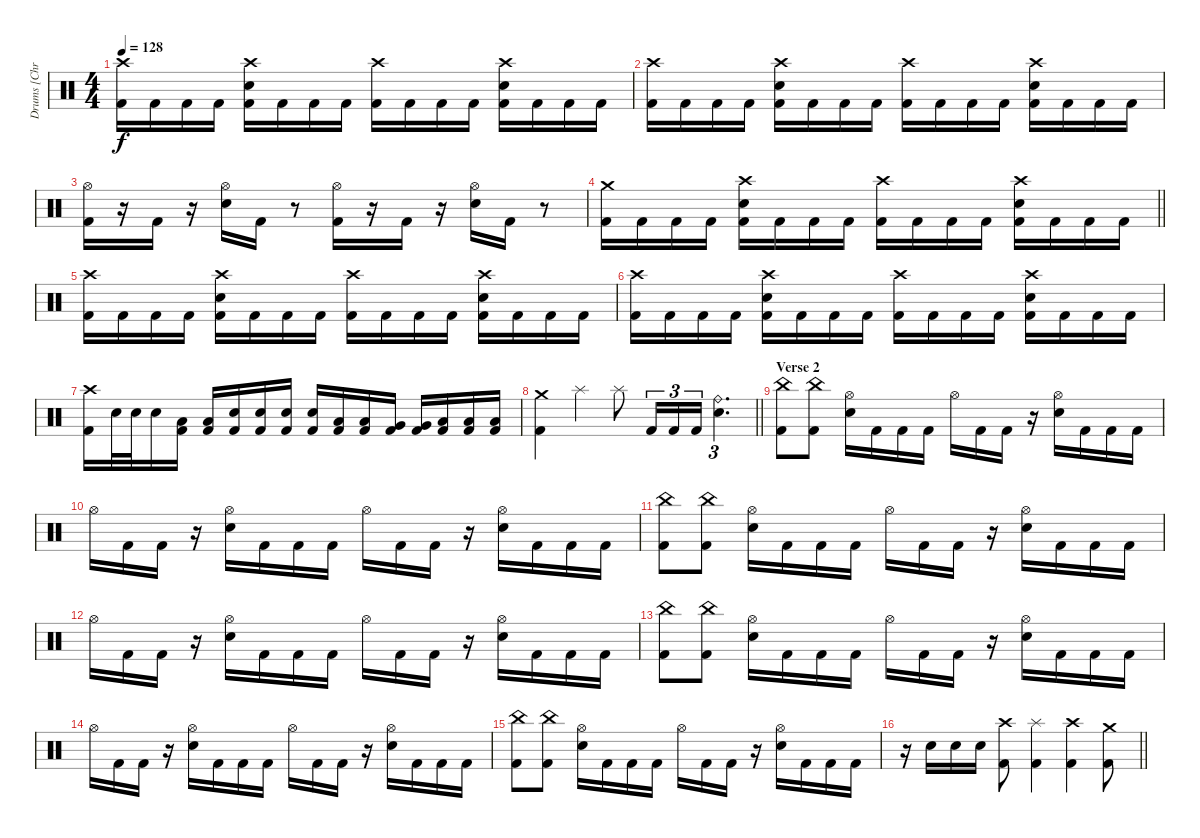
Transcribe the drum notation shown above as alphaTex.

\track ("Drums [Chris Adler]" "Drums [Chr") {instrument percussion}
\staff {score}
\articulation defaults
\ts (4 4)
\tempo 128
\clef neutral
\ks c
("Crash high (hit)" "Kick (hit) 2").16{dy f} "Kick (hit) 2".16 "Kick (hit) 2".16 "Kick (hit) 2".16 ("Crash high (hit)" "Snare (hit) 2" "Kick (hit) 2").16 "Kick (hit) 2".16 "Kick (hit) 2".16 "Kick (hit) 2".16 ("Crash high (hit)" "Kick (hit) 2").16 "Kick (hit) 2".16 "Kick (hit) 2".16 "Kick (hit) 2".16 ("Crash high (hit)" "Snare (hit) 2" "Kick (hit) 2").16 "Kick (hit) 2".16 "Kick (hit) 2".16 "Kick (hit) 2".16 |
("Crash high (hit)" "Kick (hit) 2").16 "Kick (hit) 2".16 "Kick (hit) 2".16 "Kick (hit) 2".16 ("Crash high (hit)" "Snare (hit) 2" "Kick (hit) 2").16 "Kick (hit) 2".16 "Kick (hit) 2".16 "Kick (hit) 2".16 ("Crash high (hit)" "Kick (hit) 2").16 "Kick (hit) 2".16 "Kick (hit) 2".16 "Kick (hit) 2".16 ("Crash high (hit)" "Snare (hit) 2" "Kick (hit) 2").16 "Kick (hit) 2".16 "Kick (hit) 2".16 "Kick (hit) 2".16 |
("Hi-Hat (open)" "Kick (hit) 2").16 r.16 "Kick (hit) 2".16 r.16 ("Hi-Hat (open)" "Snare (hit) 2").16 "Kick (hit) 2".16 r.8 ("Hi-Hat (open)" "Kick (hit) 2").16 r.16 "Kick (hit) 2".16 r.16 ("Hi-Hat (open)" "Snare (hit) 2").16 "Kick (hit) 2".16 r.8 |
\barLineRight lightlight
("Crash medium (hit)" "Kick (hit) 2").16 "Kick (hit) 2".16 "Kick (hit) 2".16 "Kick (hit) 2".16 ("Crash high (hit)" "Snare (hit) 2" "Kick (hit) 2").16 "Kick (hit) 2".16 "Kick (hit) 2".16 "Kick (hit) 2".16 ("Crash high (hit)" "Kick (hit) 2").16 "Kick (hit) 2".16 "Kick (hit) 2".16 "Kick (hit) 2".16 ("Crash high (hit)" "Snare (hit) 2" "Kick (hit) 2").16 "Kick (hit) 2".16 "Kick (hit) 2".16 "Kick (hit) 2".16 |
("Crash high (hit)" "Kick (hit) 2").16 "Kick (hit) 2".16 "Kick (hit) 2".16 "Kick (hit) 2".16 ("Crash high (hit)" "Snare (hit) 2" "Kick (hit) 2").16 "Kick (hit) 2".16 "Kick (hit) 2".16 "Kick (hit) 2".16 ("Crash high (hit)" "Kick (hit) 2").16 "Kick (hit) 2".16 "Kick (hit) 2".16 "Kick (hit) 2".16 ("Crash high (hit)" "Snare (hit) 2" "Kick (hit) 2").16 "Kick (hit) 2".16 "Kick (hit) 2".16 "Kick (hit) 2".16 |
("Crash high (hit)" "Kick (hit) 2").16 "Kick (hit) 2".16 "Kick (hit) 2".16 "Kick (hit) 2".16 ("Crash high (hit)" "Snare (hit) 2" "Kick (hit) 2").16 "Kick (hit) 2".16 "Kick (hit) 2".16 "Kick (hit) 2".16 ("Crash high (hit)" "Kick (hit) 2").16 "Kick (hit) 2".16 "Kick (hit) 2".16 "Kick (hit) 2".16 ("Crash high (hit)" "Snare (hit) 2" "Kick (hit) 2").16 "Kick (hit) 2".16 "Kick (hit) 2".16 "Kick (hit) 2".16 |
("Crash high (hit)" "Kick (hit) 2").16 "Snare (hit) 2".32 "Snare (hit) 2".32 "Snare (hit) 2".16 ("Low Tom (hit)" "Kick (hit) 2").16 ("Low Tom (hit)" "Kick (hit) 2").16 ("Snare (hit) 2" "Kick (hit) 2").16 ("Snare (hit) 2" "Kick (hit) 2").16 ("Snare (hit) 2" "Kick (hit) 2").16 ("Snare (hit) 2" "Kick (hit) 2").16 ("Low Tom (hit)" "Kick (hit) 2").16 ("Low Tom (hit)" "Kick (hit) 2").16 ("Very Low Tom (hit)" "Kick (hit) 2").16 ("Very Low Tom (hit)" "Kick (hit) 2").16 ("Low Floor Tom (hit)" "Kick (hit) 2").16 ("Low Floor Tom (hit)" "Kick (hit) 2").16 ("Low Floor Tom (hit)" "Kick (hit) 2").16 |
\barLineRight lightlight
("Crash medium (hit)" "Kick (hit) 2").4 "Splash (hit)".4 "Splash (hit)".8 "Kick (hit) 2".16{tu (3 2)} "Kick (hit) 2".16{tu (3 2)} "Kick (hit) 2".16{tu (3 2)} ("Ride (bell)" "Snare (hit) 2").4{d tu (3 2)} |
\section ("" "Verse 2")
("China (hit)" "Kick (hit) 2").8 ("China (hit)" "Kick (hit) 2").8 ("Hi-Hat (open)" "Snare (hit) 2").16 "Kick (hit) 2".16 "Kick (hit) 2".16 "Kick (hit) 2".16 "Hi-Hat (open)".16 "Kick (hit) 2".16 "Kick (hit) 2".16 r.16 ("Hi-Hat (open)" "Snare (hit) 2").16 "Kick (hit) 2".16 "Kick (hit) 2".16 "Kick (hit) 2".16 |
"Hi-Hat (open)".16 "Kick (hit) 2".16 "Kick (hit) 2".16 r.16 ("Hi-Hat (open)" "Snare (hit) 2").16 "Kick (hit) 2".16 "Kick (hit) 2".16 "Kick (hit) 2".16 "Hi-Hat (open)".16 "Kick (hit) 2".16 "Kick (hit) 2".16 r.16 ("Hi-Hat (open)" "Snare (hit) 2").16 "Kick (hit) 2".16 "Kick (hit) 2".16 "Kick (hit) 2".16 |
("China (hit)" "Kick (hit) 2").8 ("China (hit)" "Kick (hit) 2").8 ("Hi-Hat (open)" "Snare (hit) 2").16 "Kick (hit) 2".16 "Kick (hit) 2".16 "Kick (hit) 2".16 "Hi-Hat (open)".16 "Kick (hit) 2".16 "Kick (hit) 2".16 r.16 ("Hi-Hat (open)" "Snare (hit) 2").16 "Kick (hit) 2".16 "Kick (hit) 2".16 "Kick (hit) 2".16 |
"Hi-Hat (open)".16 "Kick (hit) 2".16 "Kick (hit) 2".16 r.16 ("Hi-Hat (open)" "Snare (hit) 2").16 "Kick (hit) 2".16 "Kick (hit) 2".16 "Kick (hit) 2".16 "Hi-Hat (open)".16 "Kick (hit) 2".16 "Kick (hit) 2".16 r.16 ("Hi-Hat (open)" "Snare (hit) 2").16 "Kick (hit) 2".16 "Kick (hit) 2".16 "Kick (hit) 2".16 |
("China (hit)" "Kick (hit) 2").8 ("China (hit)" "Kick (hit) 2").8 ("Hi-Hat (open)" "Snare (hit) 2").16 "Kick (hit) 2".16 "Kick (hit) 2".16 "Kick (hit) 2".16 "Hi-Hat (open)".16 "Kick (hit) 2".16 "Kick (hit) 2".16 r.16 ("Hi-Hat (open)" "Snare (hit) 2").16 "Kick (hit) 2".16 "Kick (hit) 2".16 "Kick (hit) 2".16 |
"Hi-Hat (open)".16 "Kick (hit) 2".16 "Kick (hit) 2".16 r.16 ("Hi-Hat (open)" "Snare (hit) 2").16 "Kick (hit) 2".16 "Kick (hit) 2".16 "Kick (hit) 2".16 "Hi-Hat (open)".16 "Kick (hit) 2".16 "Kick (hit) 2".16 r.16 ("Hi-Hat (open)" "Snare (hit) 2").16 "Kick (hit) 2".16 "Kick (hit) 2".16 "Kick (hit) 2".16 |
("China (hit)" "Kick (hit) 2").8 ("China (hit)" "Kick (hit) 2").8 ("Hi-Hat (open)" "Snare (hit) 2").16 "Kick (hit) 2".16 "Kick (hit) 2".16 "Kick (hit) 2".16 "Hi-Hat (open)".16 "Kick (hit) 2".16 "Kick (hit) 2".16 r.16 ("Hi-Hat (open)" "Snare (hit) 2").16 "Kick (hit) 2".16 "Kick (hit) 2".16 "Kick (hit) 2".16 |
\barLineRight lightlight
r.16 "Snare (hit) 2".16 "Snare (hit) 2".16 "Snare (hit) 2".16 ("Crash high (hit)" "Kick (hit) 2").8 ("Splash (hit)" "Kick (hit) 2").4 ("Crash high (hit)" "Kick (hit) 2").4 ("Crash medium (hit)" "Kick (hit) 2").8
